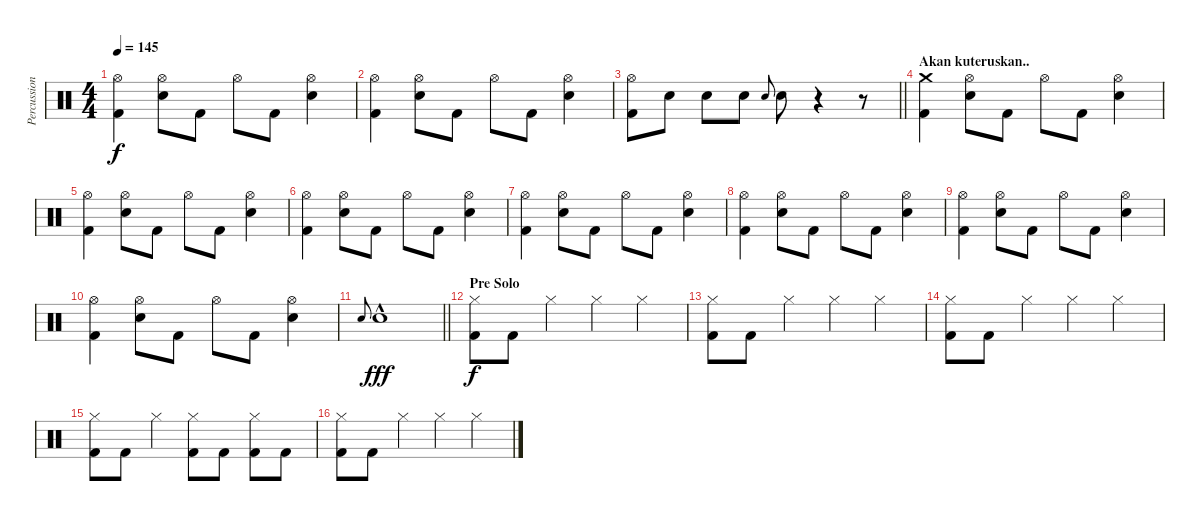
\track ("Percussion" "Percussion") {instrument percussion}
\staff {score}
\articulation defaults
\ts (4 4)
\tempo 145
\clef neutral
\ks c
("Kick (hit) 2" "Hi-Hat (open)").4{dy f} ("Electric Snare (hit)" "Hi-Hat (open)").8 "Kick (hit) 2".8 "Hi-Hat (open)".8 "Kick (hit) 2".8 ("Electric Snare (hit)" "Hi-Hat (open)").4 |
("Kick (hit) 2" "Hi-Hat (open)").4 ("Electric Snare (hit)" "Hi-Hat (open)").8 "Kick (hit) 2".8 "Hi-Hat (open)".8 "Kick (hit) 2".8 ("Electric Snare (hit)" "Hi-Hat (open)").4 |
\barLineRight lightlight
("Kick (hit) 2" "Hi-Hat (open)").8 "Electric Snare (hit)".8 "Electric Snare (hit)".8 "Electric Snare (hit)".8 "Electric Snare (hit)".8{gr onbeat} "Electric Snare (hit)".8 r.4 r.8 |
\section ("" "Akan kuteruskan..")
("Kick (hit) 2" "Crash medium (hit)").4 ("Electric Snare (hit)" "Hi-Hat (open)").8 "Kick (hit) 2".8 "Hi-Hat (open)".8 "Kick (hit) 2".8 ("Electric Snare (hit)" "Hi-Hat (open)").4 |
("Kick (hit) 2" "Hi-Hat (open)").4 ("Electric Snare (hit)" "Hi-Hat (open)").8 "Kick (hit) 2".8 "Hi-Hat (open)".8 "Kick (hit) 2".8 ("Electric Snare (hit)" "Hi-Hat (open)").4 |
("Kick (hit) 2" "Hi-Hat (open)").4 ("Electric Snare (hit)" "Hi-Hat (open)").8 "Kick (hit) 2".8 "Hi-Hat (open)".8 "Kick (hit) 2".8 ("Electric Snare (hit)" "Hi-Hat (open)").4 |
("Kick (hit) 2" "Hi-Hat (open)").4 ("Electric Snare (hit)" "Hi-Hat (open)").8 "Kick (hit) 2".8 "Hi-Hat (open)".8 "Kick (hit) 2".8 ("Electric Snare (hit)" "Hi-Hat (open)").4 |
("Kick (hit) 2" "Hi-Hat (open)").4 ("Electric Snare (hit)" "Hi-Hat (open)").8 "Kick (hit) 2".8 "Hi-Hat (open)".8 "Kick (hit) 2".8 ("Electric Snare (hit)" "Hi-Hat (open)").4 |
("Kick (hit) 2" "Hi-Hat (open)").4 ("Electric Snare (hit)" "Hi-Hat (open)").8 "Kick (hit) 2".8 "Hi-Hat (open)".8 "Kick (hit) 2".8 ("Electric Snare (hit)" "Hi-Hat (open)").4 |
("Kick (hit) 2" "Hi-Hat (open)").4 ("Electric Snare (hit)" "Hi-Hat (open)").8 "Kick (hit) 2".8 "Hi-Hat (open)".8 "Kick (hit) 2".8 ("Electric Snare (hit)" "Hi-Hat (open)").4 |
\barLineRight lightlight "Electric Snare (hit)".8{gr onbeat} "Electric Snare (hit)"{hac}.1{dy fff}
|
\section ("" "Pre Solo")
("Hi-Hat (closed)" "Kick (hit) 2").8{dy f} "Kick (hit) 2".8 "Hi-Hat (closed)".4 "Hi-Hat (closed)".4 "Hi-Hat (closed)".4 |
("Hi-Hat (closed)" "Kick (hit) 2").8 "Kick (hit) 2".8 "Hi-Hat (closed)".4 "Hi-Hat (closed)".4 "Hi-Hat (closed)".4 |
("Hi-Hat (closed)" "Kick (hit) 2").8 "Kick (hit) 2".8 "Hi-Hat (closed)".4 "Hi-Hat (closed)".4 "Hi-Hat (closed)".4 |
("Hi-Hat (closed)" "Kick (hit) 2").8 "Kick (hit) 2".8 "Hi-Hat (closed)".4 ("Hi-Hat (closed)" "Kick (hit) 2").8 "Kick (hit) 2".8 ("Hi-Hat (closed)" "Kick (hit) 2").8 "Kick (hit) 2".8 |
("Hi-Hat (closed)" "Kick (hit) 2").8 "Kick (hit) 2".8 "Hi-Hat (closed)".4 "Hi-Hat (closed)".4 "Hi-Hat (closed)".4
